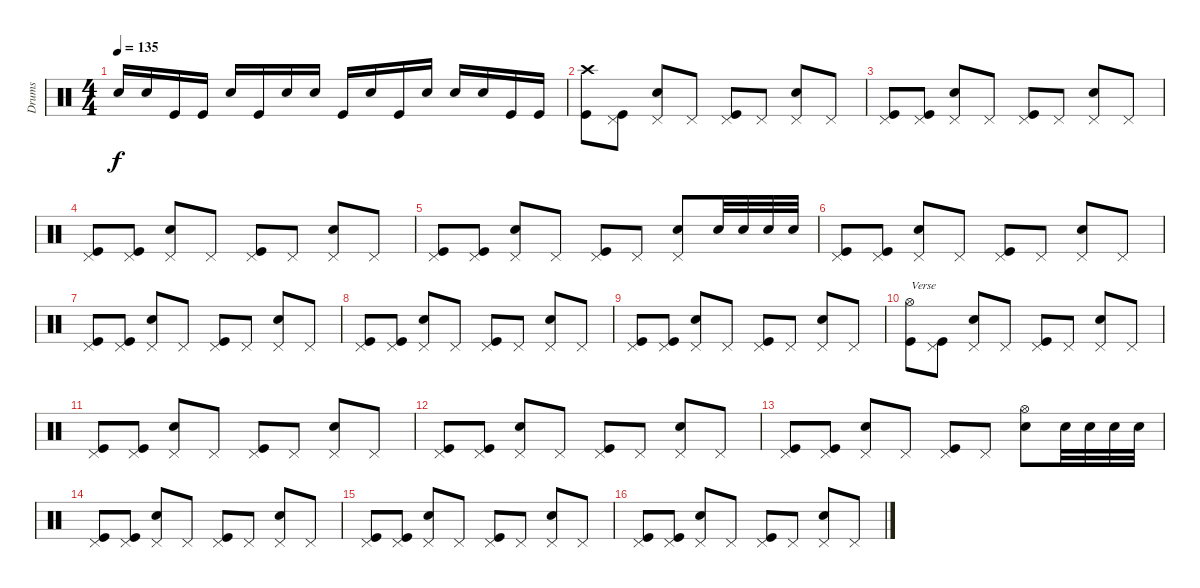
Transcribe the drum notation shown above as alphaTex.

\track ("Drums" "Drums") {instrument percussion}
\staff {score}
\articulation defaults
\ts (4 4)
\tempo 135
\clef neutral
\ks c "Snare (hit) 2".16{dy f} "Snare (hit) 2".16 "Kick (hit)".16 "Kick (hit)".16 "Snare (hit) 2".16 "Kick (hit)".16 "Snare (hit) 2".16 "Snare (hit) 2".16 "Kick (hit)".16 "Snare (hit) 2".16 "Kick (hit)".16 "Snare (hit) 2".16 "Snare (hit) 2".16 "Snare (hit) 2".16 "Kick (hit)".16 "Kick (hit)".16
|
("Crash high (hit)" "Kick (hit)").8 ("Pedal Hi-Hat (hit)" "Kick (hit)").8 ("Pedal Hi-Hat (hit)" "Snare (hit) 2").8 "Pedal Hi-Hat (hit)".8 ("Pedal Hi-Hat (hit)" "Kick (hit)").8 "Pedal Hi-Hat (hit)".8 ("Pedal Hi-Hat (hit)" "Snare (hit) 2").8 "Pedal Hi-Hat (hit)".8 |
("Pedal Hi-Hat (hit)" "Kick (hit)").8 ("Pedal Hi-Hat (hit)" "Kick (hit)").8 ("Pedal Hi-Hat (hit)" "Snare (hit) 2").8 "Pedal Hi-Hat (hit)".8 ("Pedal Hi-Hat (hit)" "Kick (hit)").8 "Pedal Hi-Hat (hit)".8 ("Pedal Hi-Hat (hit)" "Snare (hit) 2").8 "Pedal Hi-Hat (hit)".8 |
("Pedal Hi-Hat (hit)" "Kick (hit)").8 ("Pedal Hi-Hat (hit)" "Kick (hit)").8 ("Pedal Hi-Hat (hit)" "Snare (hit) 2").8 "Pedal Hi-Hat (hit)".8 ("Pedal Hi-Hat (hit)" "Kick (hit)").8 "Pedal Hi-Hat (hit)".8 ("Pedal Hi-Hat (hit)" "Snare (hit) 2").8 "Pedal Hi-Hat (hit)".8 |
("Pedal Hi-Hat (hit)" "Kick (hit)").8 ("Pedal Hi-Hat (hit)" "Kick (hit)").8 ("Pedal Hi-Hat (hit)" "Snare (hit) 2").8 "Pedal Hi-Hat (hit)".8 ("Pedal Hi-Hat (hit)" "Kick (hit)").8 "Pedal Hi-Hat (hit)".8 ("Pedal Hi-Hat (hit)" "Snare (hit) 2").8 "Snare (hit) 2".32 "Snare (hit) 2".32 "Snare (hit) 2".32 "Snare (hit) 2".32 |
("Pedal Hi-Hat (hit)" "Kick (hit)").8 ("Pedal Hi-Hat (hit)" "Kick (hit)").8 ("Pedal Hi-Hat (hit)" "Snare (hit) 2").8 "Pedal Hi-Hat (hit)".8 ("Pedal Hi-Hat (hit)" "Kick (hit)").8 "Pedal Hi-Hat (hit)".8 ("Pedal Hi-Hat (hit)" "Snare (hit) 2").8 "Pedal Hi-Hat (hit)".8 |
("Pedal Hi-Hat (hit)" "Kick (hit)").8 ("Pedal Hi-Hat (hit)" "Kick (hit)").8 ("Pedal Hi-Hat (hit)" "Snare (hit) 2").8 "Pedal Hi-Hat (hit)".8 ("Pedal Hi-Hat (hit)" "Kick (hit)").8 "Pedal Hi-Hat (hit)".8 ("Pedal Hi-Hat (hit)" "Snare (hit) 2").8 "Pedal Hi-Hat (hit)".8 |
("Pedal Hi-Hat (hit)" "Kick (hit)").8 ("Pedal Hi-Hat (hit)" "Kick (hit)").8 ("Pedal Hi-Hat (hit)" "Snare (hit) 2").8 "Pedal Hi-Hat (hit)".8 ("Pedal Hi-Hat (hit)" "Kick (hit)").8 "Pedal Hi-Hat (hit)".8 ("Pedal Hi-Hat (hit)" "Snare (hit) 2").8 "Pedal Hi-Hat (hit)".8 |
("Pedal Hi-Hat (hit)" "Kick (hit)").8 ("Pedal Hi-Hat (hit)" "Kick (hit)").8 ("Pedal Hi-Hat (hit)" "Snare (hit) 2").8 "Pedal Hi-Hat (hit)".8 ("Pedal Hi-Hat (hit)" "Kick (hit)").8 "Pedal Hi-Hat (hit)".8 ("Pedal Hi-Hat (hit)" "Snare (hit) 2").8 "Pedal Hi-Hat (hit)".8 |
("Hi-Hat (open)" "Kick (hit)").8{txt "Verse"} ("Pedal Hi-Hat (hit)" "Kick (hit)").8 ("Pedal Hi-Hat (hit)" "Snare (hit) 2").8 "Pedal Hi-Hat (hit)".8 ("Pedal Hi-Hat (hit)" "Kick (hit)").8 "Pedal Hi-Hat (hit)".8 ("Pedal Hi-Hat (hit)" "Snare (hit) 2").8 "Pedal Hi-Hat (hit)".8 |
("Pedal Hi-Hat (hit)" "Kick (hit)").8 ("Pedal Hi-Hat (hit)" "Kick (hit)").8 ("Pedal Hi-Hat (hit)" "Snare (hit) 2").8 "Pedal Hi-Hat (hit)".8 ("Pedal Hi-Hat (hit)" "Kick (hit)").8 "Pedal Hi-Hat (hit)".8 ("Pedal Hi-Hat (hit)" "Snare (hit) 2").8 "Pedal Hi-Hat (hit)".8 |
("Pedal Hi-Hat (hit)" "Kick (hit)").8 ("Pedal Hi-Hat (hit)" "Kick (hit)").8 ("Pedal Hi-Hat (hit)" "Snare (hit) 2").8 "Pedal Hi-Hat (hit)".8 ("Pedal Hi-Hat (hit)" "Kick (hit)").8 "Pedal Hi-Hat (hit)".8 ("Pedal Hi-Hat (hit)" "Snare (hit) 2").8 "Pedal Hi-Hat (hit)".8 |
("Pedal Hi-Hat (hit)" "Kick (hit)").8 ("Pedal Hi-Hat (hit)" "Kick (hit)").8 ("Pedal Hi-Hat (hit)" "Snare (hit) 2").8 "Pedal Hi-Hat (hit)".8 ("Pedal Hi-Hat (hit)" "Kick (hit)").8 "Pedal Hi-Hat (hit)".8 ("Hi-Hat (open)" "Snare (hit) 2").8 "Snare (hit) 2".32 "Snare (hit) 2".32 "Snare (hit) 2".32 "Snare (hit) 2".32 |
("Pedal Hi-Hat (hit)" "Kick (hit)").8 ("Pedal Hi-Hat (hit)" "Kick (hit)").8 ("Pedal Hi-Hat (hit)" "Snare (hit) 2").8 "Pedal Hi-Hat (hit)".8 ("Pedal Hi-Hat (hit)" "Kick (hit)").8 "Pedal Hi-Hat (hit)".8 ("Pedal Hi-Hat (hit)" "Snare (hit) 2").8 "Pedal Hi-Hat (hit)".8 |
("Pedal Hi-Hat (hit)" "Kick (hit)").8 ("Pedal Hi-Hat (hit)" "Kick (hit)").8 ("Pedal Hi-Hat (hit)" "Snare (hit) 2").8 "Pedal Hi-Hat (hit)".8 ("Pedal Hi-Hat (hit)" "Kick (hit)").8 "Pedal Hi-Hat (hit)".8 ("Pedal Hi-Hat (hit)" "Snare (hit) 2").8 "Pedal Hi-Hat (hit)".8 |
("Pedal Hi-Hat (hit)" "Kick (hit)").8 ("Pedal Hi-Hat (hit)" "Kick (hit)").8 ("Pedal Hi-Hat (hit)" "Snare (hit) 2").8 "Pedal Hi-Hat (hit)".8 ("Pedal Hi-Hat (hit)" "Kick (hit)").8 "Pedal Hi-Hat (hit)".8 ("Pedal Hi-Hat (hit)" "Snare (hit) 2").8 "Pedal Hi-Hat (hit)".8
